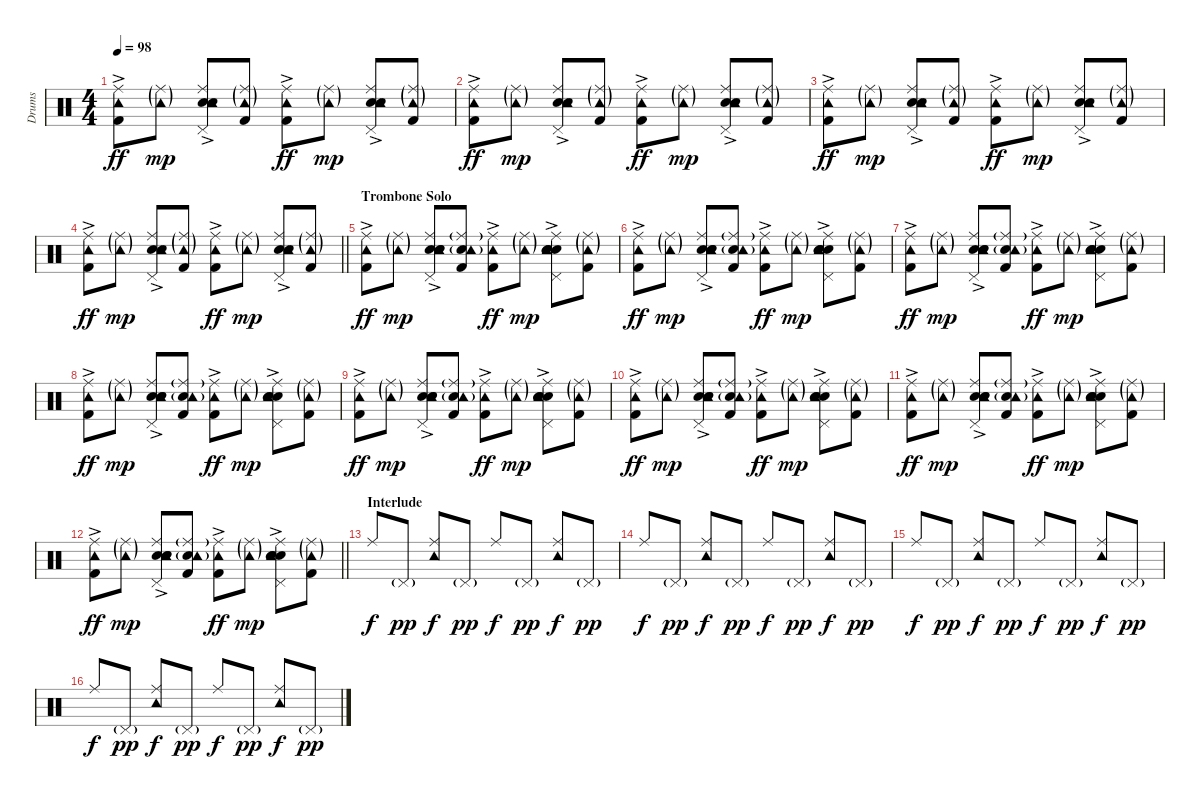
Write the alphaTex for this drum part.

\track ("Drums" "Drums") {instrument percussion}
\staff {score}
\articulation defaults
\ts (4 4)
\tempo 98
\clef neutral
\ks c
("Kick (hit) 2"{ac} "Tambourine (hit)" "Ride (middle)").8{dy ff} ("Tambourine (hit)"{g} "Ride (middle)"{g}).8{dy mp} ("Electric Snare (hit)"{ac} "Snare (hit) 2" "Pedal Hi-Hat (hit)" "Tambourine (hit)" "Ride (middle)").8 ("Kick (hit) 2" "Tambourine (hit)"{g} "Ride (middle)"{g}).8 ("Kick (hit) 2"{ac} "Tambourine (hit)" "Ride (middle)").8{dy ff} ("Tambourine (hit)"{g} "Ride (middle)"{g}).8{dy mp} ("Electric Snare (hit)"{ac} "Snare (hit) 2" "Pedal Hi-Hat (hit)" "Tambourine (hit)" "Ride (middle)").8 ("Kick (hit) 2" "Tambourine (hit)"{g} "Ride (middle)"{g}).8 |
("Kick (hit) 2"{ac} "Tambourine (hit)" "Ride (middle)").8{dy ff} ("Tambourine (hit)"{g} "Ride (middle)"{g}).8{dy mp} ("Electric Snare (hit)"{ac} "Snare (hit) 2" "Pedal Hi-Hat (hit)" "Tambourine (hit)" "Ride (middle)").8 ("Kick (hit) 2" "Tambourine (hit)"{g} "Ride (middle)"{g}).8 ("Kick (hit) 2"{ac} "Tambourine (hit)" "Ride (middle)").8{dy ff} ("Tambourine (hit)"{g} "Ride (middle)"{g}).8{dy mp} ("Electric Snare (hit)"{ac} "Snare (hit) 2" "Pedal Hi-Hat (hit)" "Tambourine (hit)" "Ride (middle)").8 ("Kick (hit) 2" "Tambourine (hit)"{g} "Ride (middle)"{g}).8 |
("Kick (hit) 2"{ac} "Tambourine (hit)" "Ride (middle)").8{dy ff} ("Tambourine (hit)"{g} "Ride (middle)"{g}).8{dy mp} ("Electric Snare (hit)"{ac} "Snare (hit) 2" "Pedal Hi-Hat (hit)" "Tambourine (hit)" "Ride (middle)").8 ("Kick (hit) 2" "Tambourine (hit)"{g} "Ride (middle)"{g}).8 ("Kick (hit) 2"{ac} "Tambourine (hit)" "Ride (middle)").8{dy ff} ("Tambourine (hit)"{g} "Ride (middle)"{g}).8{dy mp} ("Electric Snare (hit)"{ac} "Snare (hit) 2" "Pedal Hi-Hat (hit)" "Tambourine (hit)" "Ride (middle)").8 ("Kick (hit) 2" "Tambourine (hit)"{g} "Ride (middle)"{g}).8 |
\barLineRight lightlight
("Kick (hit) 2"{ac} "Tambourine (hit)" "Ride (middle)").8{dy ff} ("Tambourine (hit)"{g} "Ride (middle)"{g}).8{dy mp} ("Electric Snare (hit)"{ac} "Snare (hit) 2" "Pedal Hi-Hat (hit)" "Tambourine (hit)" "Ride (middle)").8 ("Kick (hit) 2" "Tambourine (hit)"{g} "Ride (middle)"{g}).8 ("Kick (hit) 2"{ac} "Tambourine (hit)" "Ride (middle)").8{dy ff} ("Tambourine (hit)"{g} "Ride (middle)"{g}).8{dy mp} ("Electric Snare (hit)"{ac} "Snare (hit) 2" "Pedal Hi-Hat (hit)" "Tambourine (hit)" "Ride (middle)").8 ("Kick (hit) 2" "Tambourine (hit)"{g} "Ride (middle)"{g}).8 |
\section ("" "Trombone Solo")
("Kick (hit) 2"{ac} "Tambourine (hit)" "Ride (middle)").8{dy ff} ("Tambourine (hit)"{g} "Ride (middle)"{g}).8{dy mp} ("Electric Snare (hit)"{ac} "Snare (hit) 2" "Hand Clap (hit)" "Pedal Hi-Hat (hit)" "Tambourine (hit)" "Ride (middle)").8 ("Kick (hit) 2" "Hand Clap (hit)" "Tambourine (hit)"{g} "Ride (middle)"{g}).8 ("Kick (hit) 2"{ac} "Tambourine (hit)" "Ride (middle)").8{dy ff} ("Tambourine (hit)"{g} "Ride (middle)"{g}).8{dy mp} ("Electric Snare (hit)"{ac} "Snare (hit) 2" "Hand Clap (hit)" "Pedal Hi-Hat (hit)" "Tambourine (hit)" "Ride (middle)").8 ("Kick (hit) 2" "Tambourine (hit)"{g} "Ride (middle)"{g}).8 |
("Kick (hit) 2"{ac} "Tambourine (hit)" "Ride (middle)").8{dy ff} ("Tambourine (hit)"{g} "Ride (middle)"{g}).8{dy mp} ("Electric Snare (hit)"{ac} "Snare (hit) 2" "Hand Clap (hit)" "Pedal Hi-Hat (hit)" "Tambourine (hit)" "Ride (middle)").8 ("Kick (hit) 2" "Hand Clap (hit)" "Tambourine (hit)"{g} "Ride (middle)"{g}).8 ("Kick (hit) 2"{ac} "Tambourine (hit)" "Ride (middle)").8{dy ff} ("Tambourine (hit)"{g} "Ride (middle)"{g}).8{dy mp} ("Electric Snare (hit)"{ac} "Snare (hit) 2" "Hand Clap (hit)" "Pedal Hi-Hat (hit)" "Tambourine (hit)" "Ride (middle)").8 ("Kick (hit) 2" "Tambourine (hit)"{g} "Ride (middle)"{g}).8 |
("Kick (hit) 2"{ac} "Tambourine (hit)" "Ride (middle)").8{dy ff} ("Tambourine (hit)"{g} "Ride (middle)"{g}).8{dy mp} ("Electric Snare (hit)"{ac} "Snare (hit) 2" "Hand Clap (hit)" "Pedal Hi-Hat (hit)" "Tambourine (hit)" "Ride (middle)").8 ("Kick (hit) 2" "Hand Clap (hit)" "Tambourine (hit)"{g} "Ride (middle)"{g}).8 ("Kick (hit) 2"{ac} "Tambourine (hit)" "Ride (middle)").8{dy ff} ("Tambourine (hit)"{g} "Ride (middle)"{g}).8{dy mp} ("Electric Snare (hit)"{ac} "Snare (hit) 2" "Hand Clap (hit)" "Pedal Hi-Hat (hit)" "Tambourine (hit)" "Ride (middle)").8 ("Kick (hit) 2" "Tambourine (hit)"{g} "Ride (middle)"{g}).8 |
("Kick (hit) 2"{ac} "Tambourine (hit)" "Ride (middle)").8{dy ff} ("Tambourine (hit)"{g} "Ride (middle)"{g}).8{dy mp} ("Electric Snare (hit)"{ac} "Snare (hit) 2" "Hand Clap (hit)" "Pedal Hi-Hat (hit)" "Tambourine (hit)" "Ride (middle)").8 ("Kick (hit) 2" "Hand Clap (hit)" "Tambourine (hit)"{g} "Ride (middle)"{g}).8 ("Kick (hit) 2"{ac} "Tambourine (hit)" "Ride (middle)").8{dy ff} ("Tambourine (hit)"{g} "Ride (middle)"{g}).8{dy mp} ("Electric Snare (hit)"{ac} "Snare (hit) 2" "Hand Clap (hit)" "Pedal Hi-Hat (hit)" "Tambourine (hit)" "Ride (middle)").8 ("Kick (hit) 2" "Tambourine (hit)"{g} "Ride (middle)"{g}).8 |
("Kick (hit) 2"{ac} "Tambourine (hit)" "Ride (middle)").8{dy ff} ("Tambourine (hit)"{g} "Ride (middle)"{g}).8{dy mp} ("Electric Snare (hit)"{ac} "Snare (hit) 2" "Hand Clap (hit)" "Pedal Hi-Hat (hit)" "Tambourine (hit)" "Ride (middle)").8 ("Kick (hit) 2" "Hand Clap (hit)" "Tambourine (hit)"{g} "Ride (middle)"{g}).8 ("Kick (hit) 2"{ac} "Tambourine (hit)" "Ride (middle)").8{dy ff} ("Tambourine (hit)"{g} "Ride (middle)"{g}).8{dy mp} ("Electric Snare (hit)"{ac} "Snare (hit) 2" "Hand Clap (hit)" "Pedal Hi-Hat (hit)" "Tambourine (hit)" "Ride (middle)").8 ("Kick (hit) 2" "Tambourine (hit)"{g} "Ride (middle)"{g}).8 |
("Kick (hit) 2"{ac} "Tambourine (hit)" "Ride (middle)").8{dy ff} ("Tambourine (hit)"{g} "Ride (middle)"{g}).8{dy mp} ("Electric Snare (hit)"{ac} "Snare (hit) 2" "Hand Clap (hit)" "Pedal Hi-Hat (hit)" "Tambourine (hit)" "Ride (middle)").8 ("Kick (hit) 2" "Hand Clap (hit)" "Tambourine (hit)"{g} "Ride (middle)"{g}).8 ("Kick (hit) 2"{ac} "Tambourine (hit)" "Ride (middle)").8{dy ff} ("Tambourine (hit)"{g} "Ride (middle)"{g}).8{dy mp} ("Electric Snare (hit)"{ac} "Snare (hit) 2" "Hand Clap (hit)" "Pedal Hi-Hat (hit)" "Tambourine (hit)" "Ride (middle)").8 ("Kick (hit) 2" "Tambourine (hit)"{g} "Ride (middle)"{g}).8 |
("Kick (hit) 2"{ac} "Tambourine (hit)" "Ride (middle)").8{dy ff} ("Tambourine (hit)"{g} "Ride (middle)"{g}).8{dy mp} ("Electric Snare (hit)"{ac} "Snare (hit) 2" "Hand Clap (hit)" "Pedal Hi-Hat (hit)" "Tambourine (hit)" "Ride (middle)").8 ("Kick (hit) 2" "Hand Clap (hit)" "Tambourine (hit)"{g} "Ride (middle)"{g}).8 ("Kick (hit) 2"{ac} "Tambourine (hit)" "Ride (middle)").8{dy ff} ("Tambourine (hit)"{g} "Ride (middle)"{g}).8{dy mp} ("Electric Snare (hit)"{ac} "Snare (hit) 2" "Hand Clap (hit)" "Pedal Hi-Hat (hit)" "Tambourine (hit)" "Ride (middle)").8 ("Kick (hit) 2" "Tambourine (hit)"{g} "Ride (middle)"{g}).8 |
\barLineRight lightlight
("Kick (hit) 2"{ac} "Tambourine (hit)" "Ride (middle)").8{dy ff} ("Tambourine (hit)"{g} "Ride (middle)"{g}).8{dy mp} ("Electric Snare (hit)"{ac} "Snare (hit) 2" "Hand Clap (hit)" "Pedal Hi-Hat (hit)" "Tambourine (hit)" "Ride (middle)").8 ("Kick (hit) 2" "Hand Clap (hit)" "Tambourine (hit)"{g} "Ride (middle)"{g}).8 ("Kick (hit) 2"{ac} "Tambourine (hit)" "Ride (middle)").8{dy ff} ("Tambourine (hit)"{g} "Ride (middle)"{g}).8{dy mp} ("Electric Snare (hit)"{ac} "Snare (hit) 2" "Hand Clap (hit)" "Pedal Hi-Hat (hit)" "Tambourine (hit)" "Ride (middle)").8 ("Kick (hit) 2" "Tambourine (hit)"{g} "Ride (middle)"{g}).8 |
\section ("" "Interlude")
"Ride (middle)".8{dy f} "Pedal Hi-Hat (hit)"{g}.8{dy pp} ("Tambourine (hit)" "Ride (middle)").8{dy f} "Pedal Hi-Hat (hit)"{g}.8{dy pp} "Ride (middle)".8{dy f} "Pedal Hi-Hat (hit)"{g}.8{dy pp} ("Tambourine (hit)" "Ride (middle)").8{dy f} "Pedal Hi-Hat (hit)"{g}.8{dy pp} |
"Ride (middle)".8{dy f} "Pedal Hi-Hat (hit)"{g}.8{dy pp} ("Tambourine (hit)" "Ride (middle)").8{dy f} "Pedal Hi-Hat (hit)"{g}.8{dy pp} "Ride (middle)".8{dy f} "Pedal Hi-Hat (hit)"{g}.8{dy pp} ("Tambourine (hit)" "Ride (middle)").8{dy f} "Pedal Hi-Hat (hit)"{g}.8{dy pp} |
"Ride (middle)".8{dy f} "Pedal Hi-Hat (hit)"{g}.8{dy pp} ("Tambourine (hit)" "Ride (middle)").8{dy f} "Pedal Hi-Hat (hit)"{g}.8{dy pp} "Ride (middle)".8{dy f} "Pedal Hi-Hat (hit)"{g}.8{dy pp} ("Tambourine (hit)" "Ride (middle)").8{dy f} "Pedal Hi-Hat (hit)"{g}.8{dy pp} |
"Ride (middle)".8{dy f} "Pedal Hi-Hat (hit)"{g}.8{dy pp} ("Tambourine (hit)" "Ride (middle)").8{dy f} "Pedal Hi-Hat (hit)"{g}.8{dy pp} "Ride (middle)".8{dy f} "Pedal Hi-Hat (hit)"{g}.8{dy pp} ("Tambourine (hit)" "Ride (middle)").8{dy f} "Pedal Hi-Hat (hit)"{g}.8{dy pp}
